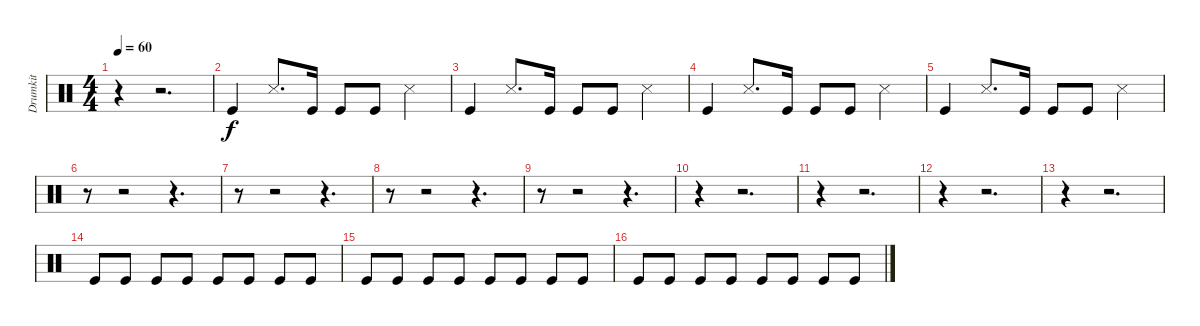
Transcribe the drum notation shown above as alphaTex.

\track ("Drumkit" "Drumkit") {instrument percussion}
\staff {score}
\articulation defaults
\ts (4 4)
\tempo 60
\clef neutral
\ks c
r.4{dy f} r.2{d} |
"Kick (hit)".4 "Snare (side stick) 3".8{d} "Kick (hit)".16 "Kick (hit)".8 "Kick (hit)".8 "Snare (side stick) 3".4 |
"Kick (hit)".4 "Snare (side stick) 3".8{d} "Kick (hit)".16 "Kick (hit)".8 "Kick (hit)".8 "Snare (side stick) 3".4 |
"Kick (hit)".4 "Snare (side stick) 3".8{d} "Kick (hit)".16 "Kick (hit)".8 "Kick (hit)".8 "Snare (side stick) 3".4 |
"Kick (hit)".4 "Snare (side stick) 3".8{d} "Kick (hit)".16 "Kick (hit)".8 "Kick (hit)".8 "Snare (side stick) 3".4 |
r.8 r.2 r.4{d} |
r.8 r.2 r.4{d} |
r.8 r.2 r.4{d} |
r.8 r.2 r.4{d} |
r.4 r.2{d} |
r.4 r.2{d} |
r.4 r.2{d} |
r.4 r.2{d} |
"Kick (hit)".8 "Kick (hit)".8 "Kick (hit)".8 "Kick (hit)".8 "Kick (hit)".8 "Kick (hit)".8 "Kick (hit)".8 "Kick (hit)".8 |
"Kick (hit)".8 "Kick (hit)".8 "Kick (hit)".8 "Kick (hit)".8 "Kick (hit)".8 "Kick (hit)".8 "Kick (hit)".8 "Kick (hit)".8 |
"Kick (hit)".8 "Kick (hit)".8 "Kick (hit)".8 "Kick (hit)".8 "Kick (hit)".8 "Kick (hit)".8 "Kick (hit)".8 "Kick (hit)".8
